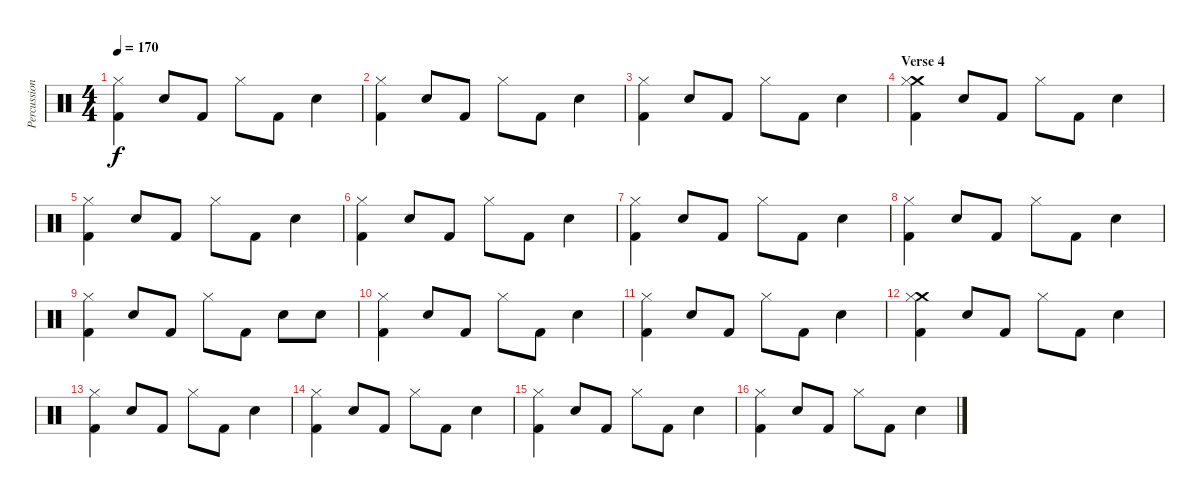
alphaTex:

\track ("Percussions" "Percussion") {instrument percussion}
\staff {score}
\articulation defaults
\ts (4 4)
\tempo 170
\clef neutral
\ks c
("Hi-Hat (closed)" "Kick (hit) 2").4{dy f} "Electric Snare (hit)".8 "Kick (hit) 2".8 "Hi-Hat (closed)".8 "Kick (hit) 2".8 "Electric Snare (hit)".4 |
("Hi-Hat (closed)" "Kick (hit) 2").4 "Electric Snare (hit)".8 "Kick (hit) 2".8 "Hi-Hat (closed)".8 "Kick (hit) 2".8 "Electric Snare (hit)".4 |
("Hi-Hat (closed)" "Kick (hit) 2").4 "Electric Snare (hit)".8 "Kick (hit) 2".8 "Hi-Hat (closed)".8 "Kick (hit) 2".8 "Electric Snare (hit)".4 |
\section ("" "Verse 4")
("Crash medium (hit)" "Hi-Hat (closed)" "Kick (hit) 2").4 "Electric Snare (hit)".8 "Kick (hit) 2".8 "Hi-Hat (closed)".8 "Kick (hit) 2".8 "Electric Snare (hit)".4 |
("Hi-Hat (closed)" "Kick (hit) 2").4 "Electric Snare (hit)".8 "Kick (hit) 2".8 "Hi-Hat (closed)".8 "Kick (hit) 2".8 "Electric Snare (hit)".4 |
("Hi-Hat (closed)" "Kick (hit) 2").4 "Electric Snare (hit)".8 "Kick (hit) 2".8 "Hi-Hat (closed)".8 "Kick (hit) 2".8 "Electric Snare (hit)".4 |
("Hi-Hat (closed)" "Kick (hit) 2").4 "Electric Snare (hit)".8 "Kick (hit) 2".8 "Hi-Hat (closed)".8 "Kick (hit) 2".8 "Electric Snare (hit)".4 |
("Hi-Hat (closed)" "Kick (hit) 2").4 "Electric Snare (hit)".8 "Kick (hit) 2".8 "Hi-Hat (closed)".8 "Kick (hit) 2".8 "Electric Snare (hit)".4 |
("Hi-Hat (closed)" "Kick (hit) 2").4 "Electric Snare (hit)".8 "Kick (hit) 2".8 "Hi-Hat (closed)".8 "Kick (hit) 2".8 "Electric Snare (hit)".8 "Electric Snare (hit)".8 |
("Hi-Hat (closed)" "Kick (hit) 2").4 "Electric Snare (hit)".8 "Kick (hit) 2".8 "Hi-Hat (closed)".8 "Kick (hit) 2".8 "Electric Snare (hit)".4 |
("Hi-Hat (closed)" "Kick (hit) 2").4 "Electric Snare (hit)".8 "Kick (hit) 2".8 "Hi-Hat (closed)".8 "Kick (hit) 2".8 "Electric Snare (hit)".4 |
("Crash medium (hit)" "Hi-Hat (closed)" "Kick (hit) 2").4 "Electric Snare (hit)".8 "Kick (hit) 2".8 "Hi-Hat (closed)".8 "Kick (hit) 2".8 "Electric Snare (hit)".4 |
("Hi-Hat (closed)" "Kick (hit) 2").4 "Electric Snare (hit)".8 "Kick (hit) 2".8 "Hi-Hat (closed)".8 "Kick (hit) 2".8 "Electric Snare (hit)".4 |
("Hi-Hat (closed)" "Kick (hit) 2").4 "Electric Snare (hit)".8 "Kick (hit) 2".8 "Hi-Hat (closed)".8 "Kick (hit) 2".8 "Electric Snare (hit)".4 |
("Hi-Hat (closed)" "Kick (hit) 2").4 "Electric Snare (hit)".8 "Kick (hit) 2".8 "Hi-Hat (closed)".8 "Kick (hit) 2".8 "Electric Snare (hit)".4 |
("Hi-Hat (closed)" "Kick (hit) 2").4 "Electric Snare (hit)".8 "Kick (hit) 2".8 "Hi-Hat (closed)".8 "Kick (hit) 2".8 "Electric Snare (hit)".4
